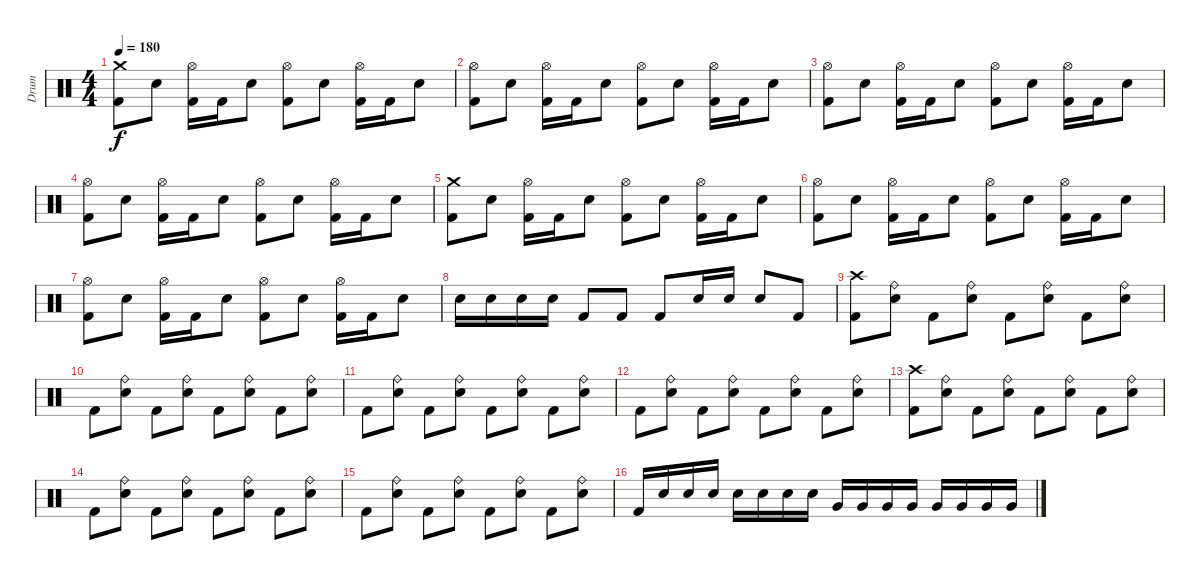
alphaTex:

\track ("Drum" "Drum") {instrument percussion}
\staff {score}
\articulation defaults
\ts (4 4)
\tempo 180
\clef neutral
\ks c
("Crash medium (hit)" "Kick (hit) 2").8{dy f} "Snare (hit) 2".8 ("Hi-Hat (open)" "Kick (hit) 2").16 "Kick (hit) 2".16 "Snare (hit) 2".8 ("Hi-Hat (open)" "Kick (hit) 2").8 "Snare (hit) 2".8 ("Hi-Hat (open)" "Kick (hit) 2").16 "Kick (hit) 2".16 "Snare (hit) 2".8 |
("Hi-Hat (open)" "Kick (hit) 2").8 "Snare (hit) 2".8 ("Hi-Hat (open)" "Kick (hit) 2").16 "Kick (hit) 2".16 "Snare (hit) 2".8 ("Hi-Hat (open)" "Kick (hit) 2").8 "Snare (hit) 2".8 ("Hi-Hat (open)" "Kick (hit) 2").16 "Kick (hit) 2".16 "Snare (hit) 2".8 |
("Hi-Hat (open)" "Kick (hit) 2").8 "Snare (hit) 2".8 ("Hi-Hat (open)" "Kick (hit) 2").16 "Kick (hit) 2".16 "Snare (hit) 2".8 ("Hi-Hat (open)" "Kick (hit) 2").8 "Snare (hit) 2".8 ("Hi-Hat (open)" "Kick (hit) 2").16 "Kick (hit) 2".16 "Snare (hit) 2".8 |
("Hi-Hat (open)" "Kick (hit) 2").8 "Snare (hit) 2".8 ("Hi-Hat (open)" "Kick (hit) 2").16 "Kick (hit) 2".16 "Snare (hit) 2".8 ("Hi-Hat (open)" "Kick (hit) 2").8 "Snare (hit) 2".8 ("Hi-Hat (open)" "Kick (hit) 2").16 "Kick (hit) 2".16 "Snare (hit) 2".8 |
("Crash medium (hit)" "Kick (hit) 2").8 "Snare (hit) 2".8 ("Hi-Hat (open)" "Kick (hit) 2").16 "Kick (hit) 2".16 "Snare (hit) 2".8 ("Hi-Hat (open)" "Kick (hit) 2").8 "Snare (hit) 2".8 ("Hi-Hat (open)" "Kick (hit) 2").16 "Kick (hit) 2".16 "Snare (hit) 2".8 |
("Hi-Hat (open)" "Kick (hit) 2").8 "Snare (hit) 2".8 ("Hi-Hat (open)" "Kick (hit) 2").16 "Kick (hit) 2".16 "Snare (hit) 2".8 ("Hi-Hat (open)" "Kick (hit) 2").8 "Snare (hit) 2".8 ("Hi-Hat (open)" "Kick (hit) 2").16 "Kick (hit) 2".16 "Snare (hit) 2".8 |
("Hi-Hat (open)" "Kick (hit) 2").8 "Snare (hit) 2".8 ("Hi-Hat (open)" "Kick (hit) 2").16 "Kick (hit) 2".16 "Snare (hit) 2".8 ("Hi-Hat (open)" "Kick (hit) 2").8 "Snare (hit) 2".8 ("Hi-Hat (open)" "Kick (hit) 2").16 "Kick (hit) 2".16 "Snare (hit) 2".8 |
"Snare (hit) 2".16 "Snare (hit) 2".16 "Snare (hit) 2".16 "Snare (hit) 2".16 "Kick (hit) 2".8 "Kick (hit) 2".8 "Kick (hit) 2".8 "Snare (hit) 2".16 "Snare (hit) 2".16 "Snare (hit) 2".8 "Kick (hit) 2".8 |
("Crash high (hit)" "Kick (hit) 2").8 ("Ride (bell)" "Snare (hit) 2").8 "Kick (hit) 2".8 ("Ride (bell)" "Snare (hit) 2").8 "Kick (hit) 2".8 ("Ride (bell)" "Snare (hit) 2").8 "Kick (hit) 2".8 ("Ride (bell)" "Snare (hit) 2").8 |
"Kick (hit) 2".8 ("Ride (bell)" "Snare (hit) 2").8 "Kick (hit) 2".8 ("Ride (bell)" "Snare (hit) 2").8 "Kick (hit) 2".8 ("Ride (bell)" "Snare (hit) 2").8 "Kick (hit) 2".8 ("Ride (bell)" "Snare (hit) 2").8 |
"Kick (hit) 2".8 ("Ride (bell)" "Snare (hit) 2").8 "Kick (hit) 2".8 ("Ride (bell)" "Snare (hit) 2").8 "Kick (hit) 2".8 ("Ride (bell)" "Snare (hit) 2").8 "Kick (hit) 2".8 ("Ride (bell)" "Snare (hit) 2").8 |
"Kick (hit) 2".8 ("Ride (bell)" "Snare (hit) 2").8 "Kick (hit) 2".8 ("Ride (bell)" "Snare (hit) 2").8 "Kick (hit) 2".8 ("Ride (bell)" "Snare (hit) 2").8 "Kick (hit) 2".8 ("Ride (bell)" "Snare (hit) 2").8 |
("Crash high (hit)" "Kick (hit) 2").8 ("Ride (bell)" "Snare (hit) 2").8 "Kick (hit) 2".8 ("Ride (bell)" "Snare (hit) 2").8 "Kick (hit) 2".8 ("Ride (bell)" "Snare (hit) 2").8 "Kick (hit) 2".8 ("Ride (bell)" "Snare (hit) 2").8 |
"Kick (hit) 2".8 ("Ride (bell)" "Snare (hit) 2").8 "Kick (hit) 2".8 ("Ride (bell)" "Snare (hit) 2").8 "Kick (hit) 2".8 ("Ride (bell)" "Snare (hit) 2").8 "Kick (hit) 2".8 ("Ride (bell)" "Snare (hit) 2").8 |
"Kick (hit) 2".8 ("Ride (bell)" "Snare (hit) 2").8 "Kick (hit) 2".8 ("Ride (bell)" "Snare (hit) 2").8 "Kick (hit) 2".8 ("Ride (bell)" "Snare (hit) 2").8 "Kick (hit) 2".8 ("Ride (bell)" "Snare (hit) 2").8 |
"Kick (hit) 2".16 "Snare (hit) 2".16 "Snare (hit) 2".16 "Snare (hit) 2".16 "Snare (hit) 2".16 "Snare (hit) 2".16 "Snare (hit) 2".16 "Snare (hit) 2".16 "Very Low Tom (hit)".16 "Very Low Tom (hit)".16 "Very Low Tom (hit)".16 "Very Low Tom (hit)".16 "Very Low Tom (hit)".16 "Very Low Tom (hit)".16 "Very Low Tom (hit)".16 "Very Low Tom (hit)".16
